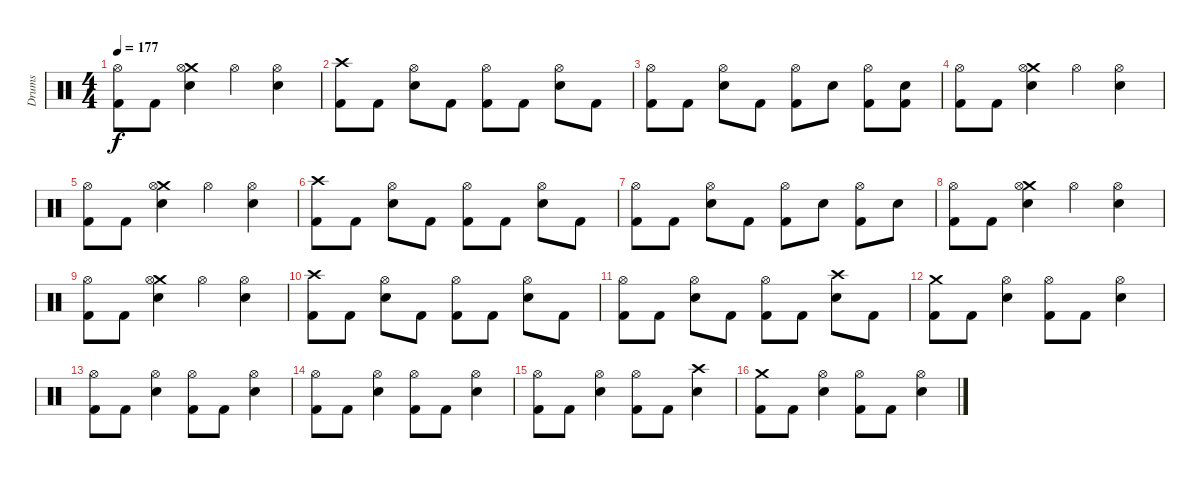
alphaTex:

\track ("Drums" "Drums") {solo instrument percussion}
\staff {score}
\articulation defaults
\ts (4 4)
\tempo 177
\clef neutral
\ks c
("Hi-Hat (open)" "Kick (hit) 2").8{dy f} "Kick (hit) 2".8 ("Crash medium (hit)" "Hi-Hat (open)" "Snare (hit) 2").4 "Hi-Hat (open)".4 ("Hi-Hat (open)" "Snare (hit) 2").4 |
("Crash high (hit)" "Kick (hit) 2").8 "Kick (hit) 2".8 ("Hi-Hat (open)" "Snare (hit) 2").8 "Kick (hit) 2".8 ("Hi-Hat (open)" "Kick (hit) 2").8 "Kick (hit) 2".8 ("Hi-Hat (open)" "Snare (hit) 2").8 "Kick (hit) 2".8 |
("Hi-Hat (open)" "Kick (hit) 2").8 "Kick (hit) 2".8 ("Hi-Hat (open)" "Snare (hit) 2").8 "Kick (hit) 2".8 ("Hi-Hat (open)" "Kick (hit) 2").8 "Snare (hit) 2".8 ("Hi-Hat (open)" "Kick (hit) 2").8 ("Snare (hit) 2" "Kick (hit) 2").8 |
("Hi-Hat (open)" "Kick (hit) 2").8 "Kick (hit) 2".8 ("Crash medium (hit)" "Hi-Hat (open)" "Snare (hit) 2").4 "Hi-Hat (open)".4 ("Hi-Hat (open)" "Snare (hit) 2").4 |
("Hi-Hat (open)" "Kick (hit) 2").8 "Kick (hit) 2".8 ("Crash medium (hit)" "Hi-Hat (open)" "Snare (hit) 2").4 "Hi-Hat (open)".4 ("Hi-Hat (open)" "Snare (hit) 2").4 |
("Crash high (hit)" "Kick (hit) 2").8 "Kick (hit) 2".8 ("Hi-Hat (open)" "Snare (hit) 2").8 "Kick (hit) 2".8 ("Hi-Hat (open)" "Kick (hit) 2").8 "Kick (hit) 2".8 ("Hi-Hat (open)" "Snare (hit) 2").8 "Kick (hit) 2".8 |
("Hi-Hat (open)" "Kick (hit) 2").8 "Kick (hit) 2".8 ("Hi-Hat (open)" "Snare (hit) 2").8 "Kick (hit) 2".8 ("Hi-Hat (open)" "Kick (hit) 2").8 "Snare (hit) 2".8 ("Hi-Hat (open)" "Kick (hit) 2").8 "Snare (hit) 2".8 |
("Hi-Hat (open)" "Kick (hit) 2").8 "Kick (hit) 2".8 ("Crash medium (hit)" "Hi-Hat (open)" "Snare (hit) 2").4 "Hi-Hat (open)".4 ("Hi-Hat (open)" "Snare (hit) 2").4 |
("Hi-Hat (open)" "Kick (hit) 2").8 "Kick (hit) 2".8 ("Crash medium (hit)" "Hi-Hat (open)" "Snare (hit) 2").4 "Hi-Hat (open)".4 ("Hi-Hat (open)" "Snare (hit) 2").4 |
("Crash high (hit)" "Kick (hit) 2").8 "Kick (hit) 2".8 ("Hi-Hat (open)" "Snare (hit) 2").8 "Kick (hit) 2".8 ("Hi-Hat (open)" "Kick (hit) 2").8 "Kick (hit) 2".8 ("Hi-Hat (open)" "Snare (hit) 2").8 "Kick (hit) 2".8 |
("Hi-Hat (open)" "Kick (hit) 2").8 "Kick (hit) 2".8 ("Hi-Hat (open)" "Snare (hit) 2").8 "Kick (hit) 2".8 ("Hi-Hat (open)" "Kick (hit) 2").8 "Kick (hit) 2".8 ("Crash high (hit)" "Snare (hit) 2").8 "Kick (hit) 2".8 |
("Crash medium (hit)" "Kick (hit) 2").8 "Kick (hit) 2".8 ("Hi-Hat (open)" "Snare (hit) 2").4 ("Hi-Hat (open)" "Kick (hit) 2").8 "Kick (hit) 2".8 ("Hi-Hat (open)" "Snare (hit) 2").4 |
("Hi-Hat (open)" "Kick (hit) 2").8 "Kick (hit) 2".8 ("Hi-Hat (open)" "Snare (hit) 2").4 ("Hi-Hat (open)" "Kick (hit) 2").8 "Kick (hit) 2".8 ("Hi-Hat (open)" "Snare (hit) 2").4 |
("Hi-Hat (open)" "Kick (hit) 2").8 "Kick (hit) 2".8 ("Hi-Hat (open)" "Snare (hit) 2").4 ("Hi-Hat (open)" "Kick (hit) 2").8 "Kick (hit) 2".8 ("Hi-Hat (open)" "Snare (hit) 2").4 |
("Hi-Hat (open)" "Kick (hit) 2").8 "Kick (hit) 2".8 ("Hi-Hat (open)" "Snare (hit) 2").4 ("Hi-Hat (open)" "Kick (hit) 2").8 "Kick (hit) 2".8 ("Crash high (hit)" "Snare (hit) 2").4 |
("Crash medium (hit)" "Kick (hit) 2").8 "Kick (hit) 2".8 ("Hi-Hat (open)" "Snare (hit) 2").4 ("Hi-Hat (open)" "Kick (hit) 2").8 "Kick (hit) 2".8 ("Hi-Hat (open)" "Snare (hit) 2").4
